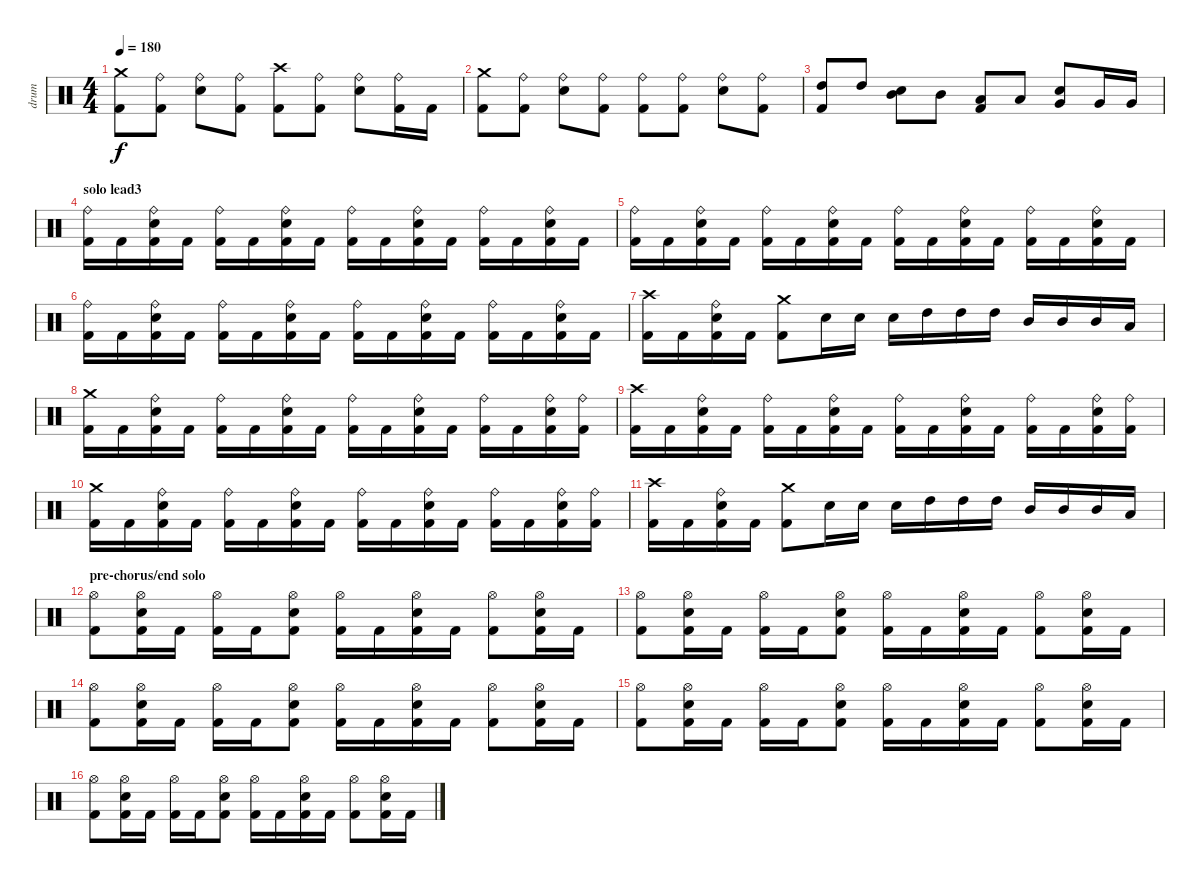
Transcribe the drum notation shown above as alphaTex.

\track ("drum" "drum") {instrument percussion}
\staff {score}
\articulation defaults
\ts (4 4)
\tempo 180
\clef neutral
\ks c
("Crash medium (hit)" "Kick (hit) 2").8{dy f} ("Ride (bell)" "Kick (hit) 2").8 ("Ride (bell)" "Electric Snare (hit)").8 ("Ride (bell)" "Kick (hit) 2").8 ("Crash high (hit)" "Kick (hit) 2").8 ("Ride (bell)" "Kick (hit) 2").8 ("Ride (bell)" "Electric Snare (hit)").8 ("Ride (bell)" "Kick (hit) 2").16 "Kick (hit) 2".16 |
("Crash medium (hit)" "Kick (hit) 2").8 ("Ride (bell)" "Kick (hit) 2").8 ("Ride (bell)" "Electric Snare (hit)").8 ("Ride (bell)" "Kick (hit) 2").8 ("Ride (bell)" "Kick (hit) 2").8 ("Ride (bell)" "Kick (hit) 2").8 ("Ride (bell)" "Electric Snare (hit)").8 ("Ride (bell)" "Kick (hit) 2").8 |
("High Tom (hit)" "Kick (hit) 2").8 "High Tom (hit)".8 ("Mid Tom (hit)" "Electric Snare (hit)").8 "Mid Tom (hit)".8 ("Low Tom (hit)" "Kick (hit) 2").8 "Low Tom (hit)".8 ("Very Low Tom (hit)" "Electric Snare (hit)").8 "Very Low Tom (hit)".16 "Very Low Tom (hit)".16 |
\section ("" "solo lead3")
("Ride (bell)" "Kick (hit) 2").16 "Kick (hit) 2".16 ("Ride (bell)" "Electric Snare (hit)" "Kick (hit) 2").16 "Kick (hit) 2".16 ("Ride (bell)" "Kick (hit) 2").16 "Kick (hit) 2".16 ("Ride (bell)" "Electric Snare (hit)" "Kick (hit) 2").16 "Kick (hit) 2".16 ("Ride (bell)" "Kick (hit) 2").16 "Kick (hit) 2".16 ("Ride (bell)" "Electric Snare (hit)" "Kick (hit) 2").16 "Kick (hit) 2".16 ("Ride (bell)" "Kick (hit) 2").16 "Kick (hit) 2".16 ("Ride (bell)" "Electric Snare (hit)" "Kick (hit) 2").16 "Kick (hit) 2".16 |
("Ride (bell)" "Kick (hit) 2").16 "Kick (hit) 2".16 ("Ride (bell)" "Electric Snare (hit)" "Kick (hit) 2").16 "Kick (hit) 2".16 ("Ride (bell)" "Kick (hit) 2").16 "Kick (hit) 2".16 ("Ride (bell)" "Electric Snare (hit)" "Kick (hit) 2").16 "Kick (hit) 2".16 ("Ride (bell)" "Kick (hit) 2").16 "Kick (hit) 2".16 ("Ride (bell)" "Electric Snare (hit)" "Kick (hit) 2").16 "Kick (hit) 2".16 ("Ride (bell)" "Kick (hit) 2").16 "Kick (hit) 2".16 ("Ride (bell)" "Electric Snare (hit)" "Kick (hit) 2").16 "Kick (hit) 2".16 |
("Ride (bell)" "Kick (hit) 2").16 "Kick (hit) 2".16 ("Ride (bell)" "Electric Snare (hit)" "Kick (hit) 2").16 "Kick (hit) 2".16 ("Ride (bell)" "Kick (hit) 2").16 "Kick (hit) 2".16 ("Ride (bell)" "Electric Snare (hit)" "Kick (hit) 2").16 "Kick (hit) 2".16 ("Ride (bell)" "Kick (hit) 2").16 "Kick (hit) 2".16 ("Ride (bell)" "Electric Snare (hit)" "Kick (hit) 2").16 "Kick (hit) 2".16 ("Ride (bell)" "Kick (hit) 2").16 "Kick (hit) 2".16 ("Ride (bell)" "Electric Snare (hit)" "Kick (hit) 2").16 "Kick (hit) 2".16 |
("Crash high (hit)" "Kick (hit) 2").16 "Kick (hit) 2".16 ("Ride (bell)" "Electric Snare (hit)" "Kick (hit) 2").16 "Kick (hit) 2".16 ("Crash medium (hit)" "Kick (hit) 2").8 "Electric Snare (hit)".16 "Electric Snare (hit)".16 "Electric Snare (hit)".16 "High Tom (hit)".16 "High Tom (hit)".16 "High Tom (hit)".16 "Mid Tom (hit)".16 "Mid Tom (hit)".16 "Mid Tom (hit)".16 "Low Tom (hit)".16 |
("Crash medium (hit)" "Kick (hit) 2").16 "Kick (hit) 2".16 ("Ride (bell)" "Electric Snare (hit)" "Kick (hit) 2").16 "Kick (hit) 2".16 ("Ride (bell)" "Kick (hit) 2").16 "Kick (hit) 2".16 ("Ride (bell)" "Electric Snare (hit)" "Kick (hit) 2").16 "Kick (hit) 2".16 ("Ride (bell)" "Kick (hit) 2").16 "Kick (hit) 2".16 ("Ride (bell)" "Electric Snare (hit)" "Kick (hit) 2").16 "Kick (hit) 2".16 ("Ride (bell)" "Kick (hit) 2").16 "Kick (hit) 2".16 ("Ride (bell)" "Electric Snare (hit)" "Kick (hit) 2").16 ("Ride (bell)" "Kick (hit) 2").16 |
("Crash high (hit)" "Kick (hit) 2").16 "Kick (hit) 2".16 ("Ride (bell)" "Electric Snare (hit)" "Kick (hit) 2").16 "Kick (hit) 2".16 ("Ride (bell)" "Kick (hit) 2").16 "Kick (hit) 2".16 ("Ride (bell)" "Electric Snare (hit)" "Kick (hit) 2").16 "Kick (hit) 2".16 ("Ride (bell)" "Kick (hit) 2").16 "Kick (hit) 2".16 ("Ride (bell)" "Electric Snare (hit)" "Kick (hit) 2").16 "Kick (hit) 2".16 ("Ride (bell)" "Kick (hit) 2").16 "Kick (hit) 2".16 ("Ride (bell)" "Electric Snare (hit)" "Kick (hit) 2").16 ("Ride (bell)" "Kick (hit) 2").16 |
("Crash medium (hit)" "Kick (hit) 2").16 "Kick (hit) 2".16 ("Ride (bell)" "Electric Snare (hit)" "Kick (hit) 2").16 "Kick (hit) 2".16 ("Ride (bell)" "Kick (hit) 2").16 "Kick (hit) 2".16 ("Ride (bell)" "Electric Snare (hit)" "Kick (hit) 2").16 "Kick (hit) 2".16 ("Ride (bell)" "Kick (hit) 2").16 "Kick (hit) 2".16 ("Ride (bell)" "Electric Snare (hit)" "Kick (hit) 2").16 "Kick (hit) 2".16 ("Ride (bell)" "Kick (hit) 2").16 "Kick (hit) 2".16 ("Ride (bell)" "Electric Snare (hit)" "Kick (hit) 2").16 ("Ride (bell)" "Kick (hit) 2").16 |
("Crash high (hit)" "Kick (hit) 2").16 "Kick (hit) 2".16 ("Ride (bell)" "Electric Snare (hit)" "Kick (hit) 2").16 "Kick (hit) 2".16 ("Crash medium (hit)" "Kick (hit) 2").8 "Electric Snare (hit)".16 "Electric Snare (hit)".16 "Electric Snare (hit)".16 "High Tom (hit)".16 "High Tom (hit)".16 "High Tom (hit)".16 "Mid Tom (hit)".16 "Mid Tom (hit)".16 "Mid Tom (hit)".16 "Low Tom (hit)".16 |
\section ("" "pre-chorus/end solo")
("Hi-Hat (open)" "Kick (hit) 2").8 ("Hi-Hat (open)" "Electric Snare (hit)" "Kick (hit) 2").16 "Kick (hit) 2".16 ("Hi-Hat (open)" "Kick (hit) 2").16 "Kick (hit) 2".16 ("Hi-Hat (open)" "Electric Snare (hit)" "Kick (hit) 2").8 ("Hi-Hat (open)" "Kick (hit) 2").16 "Kick (hit) 2".16 ("Hi-Hat (open)" "Electric Snare (hit)" "Kick (hit) 2").16 "Kick (hit) 2".16 ("Hi-Hat (open)" "Kick (hit) 2").8 ("Hi-Hat (open)" "Electric Snare (hit)" "Kick (hit) 2").16 "Kick (hit) 2".16 |
("Hi-Hat (open)" "Kick (hit) 2").8 ("Hi-Hat (open)" "Electric Snare (hit)" "Kick (hit) 2").16 "Kick (hit) 2".16 ("Hi-Hat (open)" "Kick (hit) 2").16 "Kick (hit) 2".16 ("Hi-Hat (open)" "Electric Snare (hit)" "Kick (hit) 2").8 ("Hi-Hat (open)" "Kick (hit) 2").16 "Kick (hit) 2".16 ("Hi-Hat (open)" "Electric Snare (hit)" "Kick (hit) 2").16 "Kick (hit) 2".16 ("Hi-Hat (open)" "Kick (hit) 2").8 ("Hi-Hat (open)" "Electric Snare (hit)" "Kick (hit) 2").16 "Kick (hit) 2".16 |
("Hi-Hat (open)" "Kick (hit) 2").8 ("Hi-Hat (open)" "Electric Snare (hit)" "Kick (hit) 2").16 "Kick (hit) 2".16 ("Hi-Hat (open)" "Kick (hit) 2").16 "Kick (hit) 2".16 ("Hi-Hat (open)" "Electric Snare (hit)" "Kick (hit) 2").8 ("Hi-Hat (open)" "Kick (hit) 2").16 "Kick (hit) 2".16 ("Hi-Hat (open)" "Electric Snare (hit)" "Kick (hit) 2").16 "Kick (hit) 2".16 ("Hi-Hat (open)" "Kick (hit) 2").8 ("Hi-Hat (open)" "Electric Snare (hit)" "Kick (hit) 2").16 "Kick (hit) 2".16 |
("Hi-Hat (open)" "Kick (hit) 2").8 ("Hi-Hat (open)" "Electric Snare (hit)" "Kick (hit) 2").16 "Kick (hit) 2".16 ("Hi-Hat (open)" "Kick (hit) 2").16 "Kick (hit) 2".16 ("Hi-Hat (open)" "Electric Snare (hit)" "Kick (hit) 2").8 ("Hi-Hat (open)" "Kick (hit) 2").16 "Kick (hit) 2".16 ("Hi-Hat (open)" "Electric Snare (hit)" "Kick (hit) 2").16 "Kick (hit) 2".16 ("Hi-Hat (open)" "Kick (hit) 2").8 ("Hi-Hat (open)" "Electric Snare (hit)" "Kick (hit) 2").16 "Kick (hit) 2".16 |
("Hi-Hat (open)" "Kick (hit) 2").8 ("Hi-Hat (open)" "Electric Snare (hit)" "Kick (hit) 2").16 "Kick (hit) 2".16 ("Hi-Hat (open)" "Kick (hit) 2").16 "Kick (hit) 2".16 ("Hi-Hat (open)" "Electric Snare (hit)" "Kick (hit) 2").8 ("Hi-Hat (open)" "Kick (hit) 2").16 "Kick (hit) 2".16 ("Hi-Hat (open)" "Electric Snare (hit)" "Kick (hit) 2").16 "Kick (hit) 2".16 ("Hi-Hat (open)" "Kick (hit) 2").8 ("Hi-Hat (open)" "Electric Snare (hit)" "Kick (hit) 2").16 "Kick (hit) 2".16
